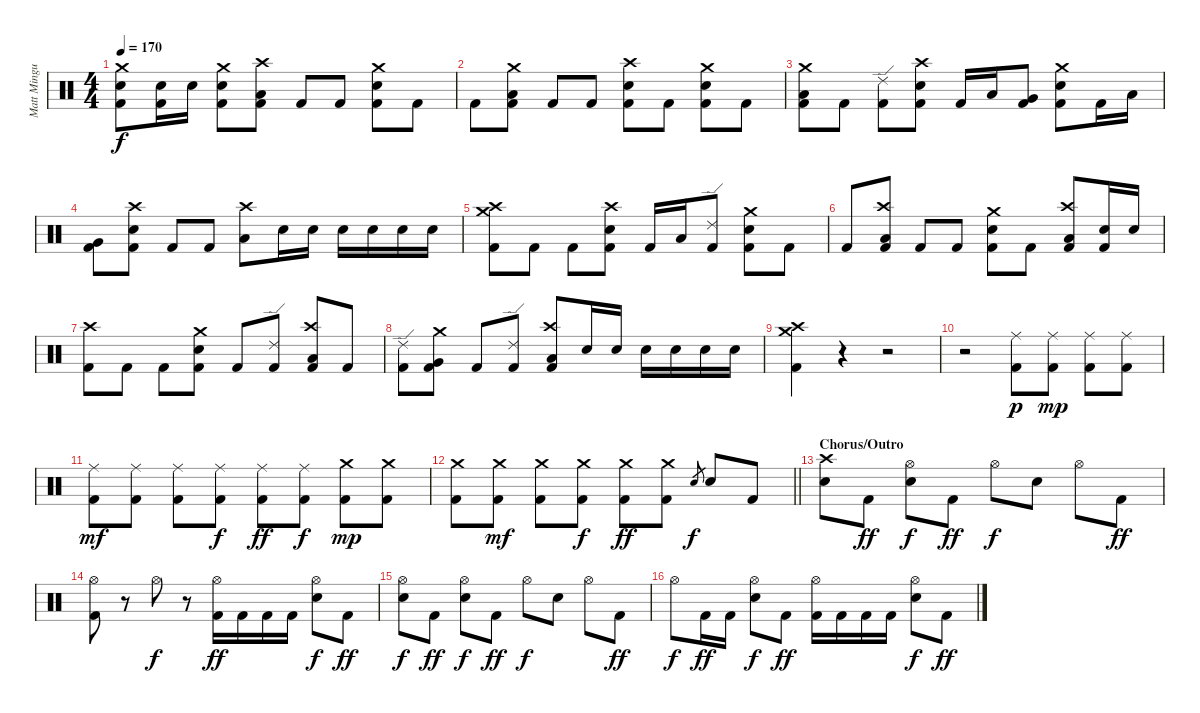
\track ("Matt Mingus (Drum Kit)" "Matt Mingu") {instrument percussion}
\staff {score}
\articulation defaults
\ts (4 4)
\tempo 170
\clef neutral
\ks c
("Crash medium (hit)" "Electric Snare (hit)" "Kick (hit) 2").8{dy f} ("Electric Snare (hit)" "Kick (hit) 2").16 "Electric Snare (hit)".16 ("Crash medium (hit)" "Electric Snare (hit)" "Kick (hit) 2").8 ("Crash high (hit)" "Low Tom (hit)" "Kick (hit) 2").8 "Kick (hit) 2".8 "Kick (hit) 2".8 ("Crash medium (hit)" "Electric Snare (hit)" "Kick (hit) 2").8 "Kick (hit) 2".8 |
"Kick (hit) 2".8 ("Crash medium (hit)" "Low Tom (hit)" "Kick (hit) 2").8 "Kick (hit) 2".8 "Kick (hit) 2".8 ("Crash high (hit)" "Electric Snare (hit)" "Kick (hit) 2").8 "Kick (hit) 2".8 ("Crash medium (hit)" "Electric Snare (hit)" "Kick (hit) 2").8 "Kick (hit) 2".8 |
("Crash medium (hit)" "Low Tom (hit)" "Kick (hit) 2").8 "Kick (hit) 2".8 ("Ride (edge) 2" "Kick (hit) 2").8 ("Crash high (hit)" "Electric Snare (hit)" "Kick (hit) 2").8 "Kick (hit) 2".16 "Low Tom (hit)".16 ("Very Low Tom (hit)" "Kick (hit) 2").8 ("Crash medium (hit)" "Electric Snare (hit)" "Kick (hit) 2").8 "Kick (hit) 2".16 "Low Tom (hit)".16 |
("Very Low Tom (hit)" "Kick (hit) 2").8 ("Crash high (hit)" "Electric Snare (hit)" "Kick (hit) 2").8 "Kick (hit) 2".8 "Kick (hit) 2".8 ("Crash high (hit)" "Low Tom (hit)").8 "Electric Snare (hit)".16 "Electric Snare (hit)".16 "Electric Snare (hit)".16 "Electric Snare (hit)".16 "Electric Snare (hit)".16 "Electric Snare (hit)".16 |
("Crash high (hit)" "Crash medium (hit)" "Kick (hit) 2").8 "Kick (hit) 2".8 "Kick (hit) 2".8 ("Crash high (hit)" "Electric Snare (hit)" "Kick (hit) 2").8 "Kick (hit) 2".16 "Low Tom (hit)".16 ("Ride (edge) 2" "Kick (hit) 2").8 ("Crash medium (hit)" "Electric Snare (hit)" "Kick (hit) 2").8 "Kick (hit) 2".8 |
"Kick (hit) 2".8 ("Crash high (hit)" "Low Tom (hit)" "Kick (hit) 2").8 "Kick (hit) 2".8 "Kick (hit) 2".8 ("Crash medium (hit)" "Electric Snare (hit)" "Kick (hit) 2").8 "Kick (hit) 2".8 ("Crash high (hit)" "Low Tom (hit)" "Kick (hit) 2").8 ("Electric Snare (hit)" "Kick (hit) 2").16 "Electric Snare (hit)".16 |
("Crash high (hit)" "Kick (hit) 2").8 "Kick (hit) 2".8 "Kick (hit) 2".8 ("Crash medium (hit)" "Electric Snare (hit)" "Kick (hit) 2").8 "Kick (hit) 2".8 ("Ride (edge) 2" "Kick (hit) 2").8 ("Crash high (hit)" "Low Tom (hit)" "Kick (hit) 2").8 "Kick (hit) 2".8 |
("Ride (edge) 2" "Kick (hit) 2").8 ("Crash medium (hit)" "Very Low Tom (hit)" "Kick (hit) 2").8 "Kick (hit) 2".8 ("Ride (edge) 2" "Kick (hit) 2").8 ("Crash high (hit)" "Low Floor Tom (hit)" "Kick (hit) 2").8 "Electric Snare (hit)".16 "Electric Snare (hit)".16 "Electric Snare (hit)".16 "Electric Snare (hit)".16 "Electric Snare (hit)".16 "Electric Snare (hit)".16 |
("Crash medium (hit)" "Crash high (hit)" "Kick (hit) 2").4 r.4 r.2 |
r.2{volume 8} ("Ride (middle)" "Kick (hit) 2").8{dy p volume 13} ("Ride (middle)" "Kick (hit) 2").8{dy mp} ("Ride (middle)" "Kick (hit) 2").8 ("Ride (middle)" "Kick (hit) 2").8 |
("Ride (middle)" "Kick (hit) 2").8{dy mf} ("Ride (middle)" "Kick (hit) 2").8 ("Ride (middle)" "Kick (hit) 2").8 ("Ride (middle)" "Kick (hit) 2").8{dy f} ("Ride (middle)" "Kick (hit) 2").8{dy ff} ("Ride (middle)" "Kick (hit) 2").8{dy f} ("Crash medium (hit)" "Kick (hit) 2").8{dy mp} ("Crash medium (hit)" "Kick (hit) 2").8 |
\barLineRight lightlight
("Crash medium (hit)" "Kick (hit) 2").8 ("Crash medium (hit)" "Kick (hit) 2").8{dy mf} ("Crash medium (hit)" "Kick (hit) 2").8 ("Crash medium (hit)" "Kick (hit) 2").8{dy f} ("Crash medium (hit)" "Kick (hit) 2").8{dy ff} ("Crash medium (hit)" "Kick (hit) 2").8 "Electric Snare (hit)".8{gr dy f} "Electric Snare (hit)".8 "Kick (hit) 2".8 |
\section ("" "Chorus/Outro")
("Crash high (hit)" "Electric Snare (hit)").8 "Kick (hit) 2".8{dy ff} ("Hi-Hat (open)" "Electric Snare (hit)").8{dy f} "Kick (hit) 2".8{dy ff} "Hi-Hat (open)".8{dy f} "Electric Snare (hit)".8 "Hi-Hat (open)".8 "Kick (hit) 2".8{dy ff} |
("Hi-Hat (open)" "Kick (hit) 2").8 r.8 "Hi-Hat (open)".8{dy f} r.8 ("Hi-Hat (open)" "Kick (hit) 2").16{dy ff} "Kick (hit) 2".16 "Kick (hit) 2".16 "Kick (hit) 2".16 ("Hi-Hat (open)" "Electric Snare (hit)").8{dy f} "Kick (hit) 2".8{dy ff} |
("Hi-Hat (open)" "Electric Snare (hit)").8{dy f} "Kick (hit) 2".8{dy ff} ("Hi-Hat (open)" "Electric Snare (hit)").8{dy f} "Kick (hit) 2".8{dy ff} "Hi-Hat (open)".8{dy f} "Electric Snare (hit)".8 "Hi-Hat (open)".8 "Kick (hit) 2".8{dy ff} |
"Hi-Hat (open)".8{dy f} "Kick (hit) 2".16{dy ff} "Kick (hit) 2".16 ("Hi-Hat (open)" "Electric Snare (hit)").8{dy f} "Kick (hit) 2".8{dy ff} ("Hi-Hat (open)" "Kick (hit) 2").16 "Kick (hit) 2".16 "Kick (hit) 2".16 "Kick (hit) 2".16 ("Hi-Hat (open)" "Electric Snare (hit)").8{dy f} "Kick (hit) 2".8{dy ff}
